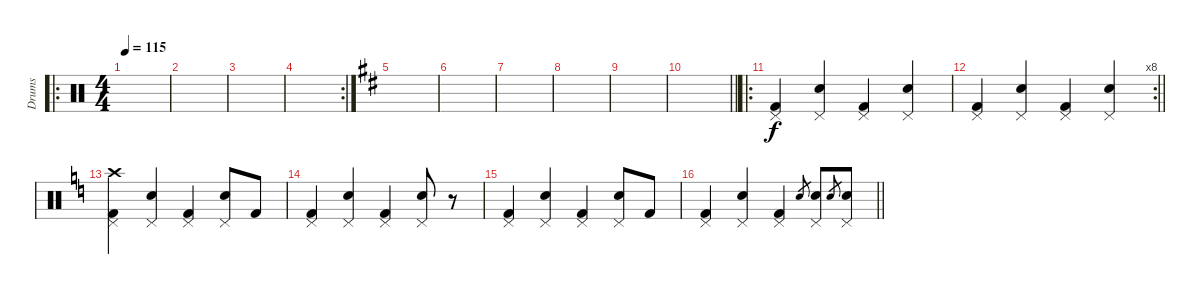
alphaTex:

\track ("Drums" "Drums") {instrument percussion}
\staff {score}
\articulation defaults
\ro
\ts (4 4)
\tempo 115
\clef neutral
\ks c
|
|
|
\rc 2
|
\ks d
|
|
|
|
|
\barLineRight lightlight
|
\ro
("Kick (hit) 2" "Pedal Hi-Hat (hit)").4 ("Snare (hit) 2" "Pedal Hi-Hat (hit)").4 ("Kick (hit) 2" "Pedal Hi-Hat (hit)").4 ("Snare (hit) 2" "Pedal Hi-Hat (hit)").4 |
\rc 8
\barLineRight lightlight
("Kick (hit) 2" "Pedal Hi-Hat (hit)").4 ("Snare (hit) 2" "Pedal Hi-Hat (hit)").4 ("Kick (hit) 2" "Pedal Hi-Hat (hit)").4 ("Snare (hit) 2" "Pedal Hi-Hat (hit)").4 |
\ks c
("Kick (hit) 2" "Pedal Hi-Hat (hit)" "Crash high (hit)").4 ("Snare (hit) 2" "Pedal Hi-Hat (hit)").4 ("Kick (hit) 2" "Pedal Hi-Hat (hit)").4 ("Snare (hit) 2" "Pedal Hi-Hat (hit)").8 "Kick (hit) 2".8 |
("Kick (hit) 2" "Pedal Hi-Hat (hit)").4 ("Snare (hit) 2" "Pedal Hi-Hat (hit)").4 ("Kick (hit) 2" "Pedal Hi-Hat (hit)").4 ("Snare (hit) 2" "Pedal Hi-Hat (hit)").8 r.8 |
("Kick (hit) 2" "Pedal Hi-Hat (hit)").4 ("Snare (hit) 2" "Pedal Hi-Hat (hit)").4 ("Kick (hit) 2" "Pedal Hi-Hat (hit)").4 ("Snare (hit) 2" "Pedal Hi-Hat (hit)").8 "Kick (hit) 2".8 |
\barLineRight lightlight
("Kick (hit) 2" "Pedal Hi-Hat (hit)").4 ("Snare (hit) 2" "Pedal Hi-Hat (hit)").4 ("Kick (hit) 2" "Pedal Hi-Hat (hit)").4 "Snare (hit) 2".8{gr} ("Snare (hit) 2" "Pedal Hi-Hat (hit)").8 "Snare (hit) 2".8{gr} ("Snare (hit) 2" "Pedal Hi-Hat (hit)").8
